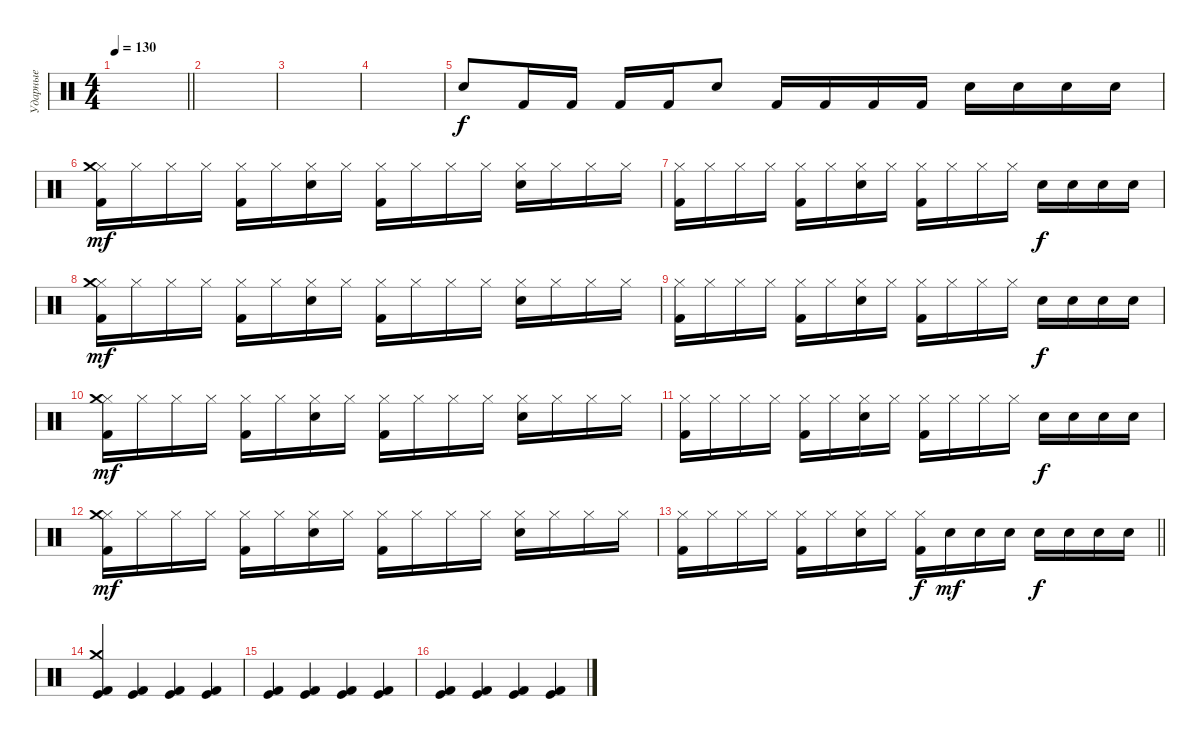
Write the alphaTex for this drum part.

\track ("Ударные" "Ударные") {instrument percussion}
\staff {score}
\articulation defaults
\ts (4 4)
\tempo 130
\clef neutral
\barLineRight lightlight
\ks c
|
|
|
|
"Electric Snare (hit)".8 "Kick (hit) 2".16 "Kick (hit) 2".16 "Kick (hit) 2".16 "Kick (hit) 2".16 "Electric Snare (hit)".8 "Kick (hit) 2".16 "Kick (hit) 2".16 "Kick (hit) 2".16 "Kick (hit) 2".16 "Electric Snare (hit)".16 "Electric Snare (hit)".16 "Electric Snare (hit)".16 "Electric Snare (hit)".16 |
("Hi-Hat (closed)" "Crash medium (hit)" "Kick (hit) 2").16{dy mf} "Hi-Hat (closed)".16 "Hi-Hat (closed)".16 "Hi-Hat (closed)".16 ("Hi-Hat (closed)" "Kick (hit) 2").16 "Hi-Hat (closed)".16 ("Hi-Hat (closed)" "Electric Snare (hit)").16 "Hi-Hat (closed)".16 ("Hi-Hat (closed)" "Kick (hit) 2").16 "Hi-Hat (closed)".16 "Hi-Hat (closed)".16 "Hi-Hat (closed)".16 ("Hi-Hat (closed)" "Electric Snare (hit)").16 "Hi-Hat (closed)".16 "Hi-Hat (closed)".16 "Hi-Hat (closed)".16 |
("Hi-Hat (closed)" "Kick (hit) 2").16 "Hi-Hat (closed)".16 "Hi-Hat (closed)".16 "Hi-Hat (closed)".16 ("Hi-Hat (closed)" "Kick (hit) 2").16 "Hi-Hat (closed)".16 ("Hi-Hat (closed)" "Electric Snare (hit)").16 "Hi-Hat (closed)".16 ("Hi-Hat (closed)" "Kick (hit) 2").16 "Hi-Hat (closed)".16 "Hi-Hat (closed)".16 "Hi-Hat (closed)".16 "Electric Snare (hit)".16{dy f} "Electric Snare (hit)".16 "Electric Snare (hit)".16 "Electric Snare (hit)".16 |
("Hi-Hat (closed)" "Crash medium (hit)" "Kick (hit) 2").16{dy mf} "Hi-Hat (closed)".16 "Hi-Hat (closed)".16 "Hi-Hat (closed)".16 ("Hi-Hat (closed)" "Kick (hit) 2").16 "Hi-Hat (closed)".16 ("Hi-Hat (closed)" "Electric Snare (hit)").16 "Hi-Hat (closed)".16 ("Hi-Hat (closed)" "Kick (hit) 2").16 "Hi-Hat (closed)".16 "Hi-Hat (closed)".16 "Hi-Hat (closed)".16 ("Hi-Hat (closed)" "Electric Snare (hit)").16 "Hi-Hat (closed)".16 "Hi-Hat (closed)".16 "Hi-Hat (closed)".16 |
("Hi-Hat (closed)" "Kick (hit) 2").16 "Hi-Hat (closed)".16 "Hi-Hat (closed)".16 "Hi-Hat (closed)".16 ("Hi-Hat (closed)" "Kick (hit) 2").16 "Hi-Hat (closed)".16 ("Hi-Hat (closed)" "Electric Snare (hit)").16 "Hi-Hat (closed)".16 ("Hi-Hat (closed)" "Kick (hit) 2").16 "Hi-Hat (closed)".16 "Hi-Hat (closed)".16 "Hi-Hat (closed)".16 "Electric Snare (hit)".16{dy f} "Electric Snare (hit)".16 "Electric Snare (hit)".16 "Electric Snare (hit)".16 |
("Hi-Hat (closed)" "Crash medium (hit)" "Kick (hit) 2").16{dy mf} "Hi-Hat (closed)".16 "Hi-Hat (closed)".16 "Hi-Hat (closed)".16 ("Hi-Hat (closed)" "Kick (hit) 2").16 "Hi-Hat (closed)".16 ("Hi-Hat (closed)" "Electric Snare (hit)").16 "Hi-Hat (closed)".16 ("Hi-Hat (closed)" "Kick (hit) 2").16 "Hi-Hat (closed)".16 "Hi-Hat (closed)".16 "Hi-Hat (closed)".16 ("Hi-Hat (closed)" "Electric Snare (hit)").16 "Hi-Hat (closed)".16 "Hi-Hat (closed)".16 "Hi-Hat (closed)".16 |
("Hi-Hat (closed)" "Kick (hit) 2").16 "Hi-Hat (closed)".16 "Hi-Hat (closed)".16 "Hi-Hat (closed)".16 ("Hi-Hat (closed)" "Kick (hit) 2").16 "Hi-Hat (closed)".16 ("Hi-Hat (closed)" "Electric Snare (hit)").16 "Hi-Hat (closed)".16 ("Hi-Hat (closed)" "Kick (hit) 2").16 "Hi-Hat (closed)".16 "Hi-Hat (closed)".16 "Hi-Hat (closed)".16 "Electric Snare (hit)".16{dy f} "Electric Snare (hit)".16 "Electric Snare (hit)".16 "Electric Snare (hit)".16 |
("Hi-Hat (closed)" "Crash medium (hit)" "Kick (hit) 2").16{dy mf} "Hi-Hat (closed)".16 "Hi-Hat (closed)".16 "Hi-Hat (closed)".16 ("Hi-Hat (closed)" "Kick (hit) 2").16 "Hi-Hat (closed)".16 ("Hi-Hat (closed)" "Electric Snare (hit)").16 "Hi-Hat (closed)".16 ("Hi-Hat (closed)" "Kick (hit) 2").16 "Hi-Hat (closed)".16 "Hi-Hat (closed)".16 "Hi-Hat (closed)".16 ("Hi-Hat (closed)" "Electric Snare (hit)").16 "Hi-Hat (closed)".16 "Hi-Hat (closed)".16 "Hi-Hat (closed)".16 |
\barLineRight lightlight
("Hi-Hat (closed)" "Kick (hit) 2").16 "Hi-Hat (closed)".16 "Hi-Hat (closed)".16 "Hi-Hat (closed)".16 ("Hi-Hat (closed)" "Kick (hit) 2").16 "Hi-Hat (closed)".16 ("Hi-Hat (closed)" "Electric Snare (hit)").16 "Hi-Hat (closed)".16 ("Hi-Hat (closed)" "Kick (hit) 2").16{dy f} "Electric Snare (hit)".16{dy mf} "Electric Snare (hit)".16 "Electric Snare (hit)".16 "Electric Snare (hit)".16{dy f} "Electric Snare (hit)".16 "Electric Snare (hit)".16 "Electric Snare (hit)".16 |
("Kick (hit) 2" "Kick (hit)" "Crash medium (hit)").4 ("Kick (hit) 2" "Kick (hit)").4 ("Kick (hit) 2" "Kick (hit)").4 ("Kick (hit) 2" "Kick (hit)").4 |
("Kick (hit) 2" "Kick (hit)").4 ("Kick (hit) 2" "Kick (hit)").4 ("Kick (hit) 2" "Kick (hit)").4 ("Kick (hit) 2" "Kick (hit)").4 |
("Kick (hit) 2" "Kick (hit)").4 ("Kick (hit) 2" "Kick (hit)").4 ("Kick (hit) 2" "Kick (hit)").4 ("Kick (hit) 2" "Kick (hit)").4
